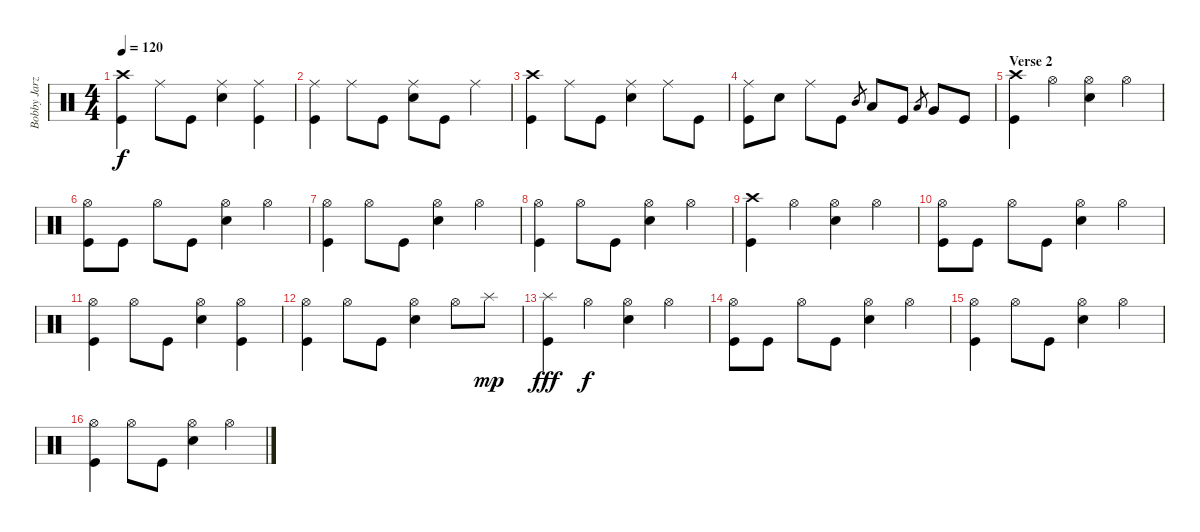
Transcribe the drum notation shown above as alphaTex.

\track ("Bobby Jarzombek" "Bobby Jarz") {instrument percussion}
\staff {score}
\articulation defaults
\ts (4 4)
\tempo 120
\clef neutral
\ks c
("Crash high (hit)" "Kick (hit)").4{dy f} "Ride (middle)".8 "Kick (hit)".8 ("Ride (middle)" "Electric Snare (hit)").4 ("Ride (middle)" "Kick (hit)").4 |
("Ride (middle)" "Kick (hit)").4 "Ride (middle)".8 "Kick (hit)".8 ("Ride (middle)" "Electric Snare (hit)").8 "Kick (hit)".8 "Ride (middle)".4 |
("Crash high (hit)" "Kick (hit)").4 "Ride (middle)".8 "Kick (hit)".8 ("Ride (middle)" "Electric Snare (hit)").4 "Ride (middle)".8 "Kick (hit)".8 |
("Ride (middle)" "Kick (hit)").8 "Electric Snare (hit)".8 "Ride (middle)".8 "Kick (hit)".8 "Mid Tom (hit)".8{gr} "Low Tom (hit)".8 "Kick (hit)".8 "Low Tom (hit)".8{gr} "Very Low Tom (hit)".8 "Kick (hit)".8 |
\section ("" "Verse 2")
("Crash high (hit)" "Kick (hit)").4 "Hi-Hat (open)".4 ("Hi-Hat (open)" "Electric Snare (hit)").4 "Hi-Hat (open)".4 |
("Hi-Hat (open)" "Kick (hit)").8 "Kick (hit)".8 "Hi-Hat (open)".8 "Kick (hit)".8 ("Hi-Hat (open)" "Electric Snare (hit)").4 "Hi-Hat (open)".4 |
("Hi-Hat (open)" "Kick (hit)").4 "Hi-Hat (open)".8 "Kick (hit)".8 ("Hi-Hat (open)" "Electric Snare (hit)").4 "Hi-Hat (open)".4 |
("Hi-Hat (open)" "Kick (hit)").4 "Hi-Hat (open)".8 "Kick (hit)".8 ("Hi-Hat (open)" "Electric Snare (hit)").4 "Hi-Hat (open)".4 |
("Crash high (hit)" "Kick (hit)").4 "Hi-Hat (open)".4 ("Hi-Hat (open)" "Electric Snare (hit)").4 "Hi-Hat (open)".4 |
("Hi-Hat (open)" "Kick (hit)").8 "Kick (hit)".8 "Hi-Hat (open)".8 "Kick (hit)".8 ("Hi-Hat (open)" "Electric Snare (hit)").4 "Hi-Hat (open)".4 |
("Hi-Hat (open)" "Kick (hit)").4 "Hi-Hat (open)".8 "Kick (hit)".8 ("Hi-Hat (open)" "Electric Snare (hit)").4 ("Hi-Hat (open)" "Kick (hit)").4 |
("Hi-Hat (open)" "Kick (hit)").4 "Hi-Hat (open)".8 "Kick (hit)".8 ("Hi-Hat (open)" "Electric Snare (hit)").4 "Hi-Hat (open)".8 "Splash (hit)".8{dy mp} |
("Splash (hit)" "Kick (hit)").4{dy fff} "Hi-Hat (open)".4{dy f} ("Hi-Hat (open)" "Electric Snare (hit)").4 "Hi-Hat (open)".4 |
("Hi-Hat (open)" "Kick (hit)").8 "Kick (hit)".8 "Hi-Hat (open)".8 "Kick (hit)".8 ("Hi-Hat (open)" "Electric Snare (hit)").4 "Hi-Hat (open)".4 |
("Hi-Hat (open)" "Kick (hit)").4 "Hi-Hat (open)".8 "Kick (hit)".8 ("Hi-Hat (open)" "Electric Snare (hit)").4 "Hi-Hat (open)".4 |
("Hi-Hat (open)" "Kick (hit)").4 "Hi-Hat (open)".8 "Kick (hit)".8 ("Hi-Hat (open)" "Electric Snare (hit)").4 "Hi-Hat (open)".4
